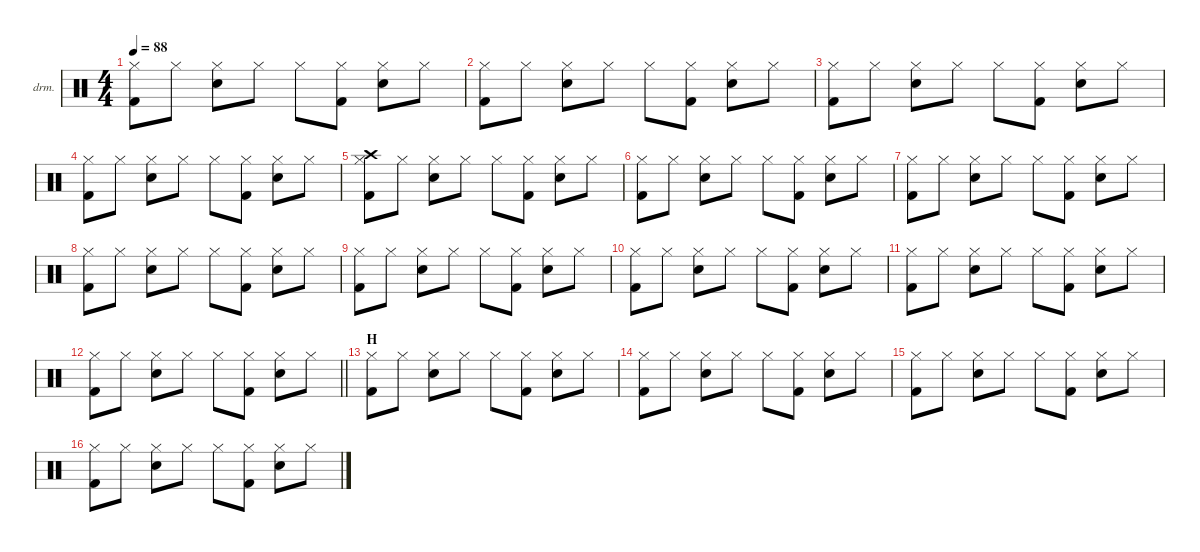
\defaultSystemsLayout 4
\hideDynamics
\bracketExtendMode nobrackets
\firstSystemTrackNameOrientation horizontal
\otherSystemsTrackNameOrientation horizontal
\track ("Percussie" "drm.") {instrument percussion}
\staff {score}
\articulation defaults
\ts (4 4)
\tempo 88
\clef neutral
\ks c
("Hi-Hat (closed)" "Kick (hit) 2").8{dy f} "Hi-Hat (closed)".8 ("Hi-Hat (closed)" "Snare (hit) 2").8 "Hi-Hat (closed)".8 "Hi-Hat (closed)".8 ("Hi-Hat (closed)" "Kick (hit) 2").8 ("Hi-Hat (closed)" "Snare (hit) 2").8 "Hi-Hat (closed)".8 |
("Hi-Hat (closed)" "Kick (hit) 2").8 "Hi-Hat (closed)".8 ("Hi-Hat (closed)" "Snare (hit) 2").8 "Hi-Hat (closed)".8 "Hi-Hat (closed)".8 ("Hi-Hat (closed)" "Kick (hit) 2").8 ("Hi-Hat (closed)" "Snare (hit) 2").8 "Hi-Hat (closed)".8 |
("Hi-Hat (closed)" "Kick (hit) 2").8 "Hi-Hat (closed)".8 ("Hi-Hat (closed)" "Snare (hit) 2").8 "Hi-Hat (closed)".8 "Hi-Hat (closed)".8 ("Hi-Hat (closed)" "Kick (hit) 2").8 ("Hi-Hat (closed)" "Snare (hit) 2").8 "Hi-Hat (closed)".8 |
("Hi-Hat (closed)" "Kick (hit) 2").8 "Hi-Hat (closed)".8 ("Hi-Hat (closed)" "Snare (hit) 2").8 "Hi-Hat (closed)".8 "Hi-Hat (closed)".8 ("Hi-Hat (closed)" "Kick (hit) 2").8 ("Hi-Hat (closed)" "Snare (hit) 2").8 "Hi-Hat (closed)".8 |
("Crash high (hit)" "Hi-Hat (closed)" "Kick (hit) 2").8 "Hi-Hat (closed)".8 ("Hi-Hat (closed)" "Snare (hit) 2").8 "Hi-Hat (closed)".8 "Hi-Hat (closed)".8 ("Hi-Hat (closed)" "Kick (hit) 2").8 ("Hi-Hat (closed)" "Snare (hit) 2").8 "Hi-Hat (closed)".8 |
("Hi-Hat (closed)" "Kick (hit) 2").8 "Hi-Hat (closed)".8 ("Hi-Hat (closed)" "Snare (hit) 2").8 "Hi-Hat (closed)".8 "Hi-Hat (closed)".8 ("Hi-Hat (closed)" "Kick (hit) 2").8 ("Hi-Hat (closed)" "Snare (hit) 2").8 "Hi-Hat (closed)".8 |
("Hi-Hat (closed)" "Kick (hit) 2").8 "Hi-Hat (closed)".8 ("Hi-Hat (closed)" "Snare (hit) 2").8 "Hi-Hat (closed)".8 "Hi-Hat (closed)".8 ("Hi-Hat (closed)" "Kick (hit) 2").8 ("Hi-Hat (closed)" "Snare (hit) 2").8 "Hi-Hat (closed)".8 |
("Hi-Hat (closed)" "Kick (hit) 2").8 "Hi-Hat (closed)".8 ("Hi-Hat (closed)" "Snare (hit) 2").8 "Hi-Hat (closed)".8 "Hi-Hat (closed)".8 ("Hi-Hat (closed)" "Kick (hit) 2").8 ("Hi-Hat (closed)" "Snare (hit) 2").8 "Hi-Hat (closed)".8 |
("Hi-Hat (closed)" "Kick (hit) 2").8 "Hi-Hat (closed)".8 ("Hi-Hat (closed)" "Snare (hit) 2").8 "Hi-Hat (closed)".8 "Hi-Hat (closed)".8 ("Hi-Hat (closed)" "Kick (hit) 2").8 ("Hi-Hat (closed)" "Snare (hit) 2").8 "Hi-Hat (closed)".8 |
("Hi-Hat (closed)" "Kick (hit) 2").8 "Hi-Hat (closed)".8 ("Hi-Hat (closed)" "Snare (hit) 2").8 "Hi-Hat (closed)".8 "Hi-Hat (closed)".8 ("Hi-Hat (closed)" "Kick (hit) 2").8 ("Hi-Hat (closed)" "Snare (hit) 2").8 "Hi-Hat (closed)".8 |
("Hi-Hat (closed)" "Kick (hit) 2").8 "Hi-Hat (closed)".8 ("Hi-Hat (closed)" "Snare (hit) 2").8 "Hi-Hat (closed)".8 "Hi-Hat (closed)".8 ("Hi-Hat (closed)" "Kick (hit) 2").8 ("Hi-Hat (closed)" "Snare (hit) 2").8 "Hi-Hat (closed)".8 |
\barLineRight lightlight
("Hi-Hat (closed)" "Kick (hit) 2").8 "Hi-Hat (closed)".8 ("Hi-Hat (closed)" "Snare (hit) 2").8 "Hi-Hat (closed)".8 "Hi-Hat (closed)".8 ("Hi-Hat (closed)" "Kick (hit) 2").8 ("Hi-Hat (closed)" "Snare (hit) 2").8 "Hi-Hat (closed)".8 |
\section ("" "H")
("Hi-Hat (closed)" "Kick (hit) 2").8 "Hi-Hat (closed)".8 ("Hi-Hat (closed)" "Snare (hit) 2").8 "Hi-Hat (closed)".8 "Hi-Hat (closed)".8 ("Hi-Hat (closed)" "Kick (hit) 2").8 ("Hi-Hat (closed)" "Snare (hit) 2").8 "Hi-Hat (closed)".8 |
("Hi-Hat (closed)" "Kick (hit) 2").8 "Hi-Hat (closed)".8 ("Hi-Hat (closed)" "Snare (hit) 2").8 "Hi-Hat (closed)".8 "Hi-Hat (closed)".8 ("Hi-Hat (closed)" "Kick (hit) 2").8 ("Hi-Hat (closed)" "Snare (hit) 2").8 "Hi-Hat (closed)".8 |
("Hi-Hat (closed)" "Kick (hit) 2").8 "Hi-Hat (closed)".8 ("Hi-Hat (closed)" "Snare (hit) 2").8 "Hi-Hat (closed)".8 "Hi-Hat (closed)".8 ("Hi-Hat (closed)" "Kick (hit) 2").8 ("Hi-Hat (closed)" "Snare (hit) 2").8 "Hi-Hat (closed)".8 |
("Hi-Hat (closed)" "Kick (hit) 2").8 "Hi-Hat (closed)".8 ("Hi-Hat (closed)" "Snare (hit) 2").8 "Hi-Hat (closed)".8 "Hi-Hat (closed)".8 ("Hi-Hat (closed)" "Kick (hit) 2").8 ("Hi-Hat (closed)" "Snare (hit) 2").8 "Hi-Hat (closed)".8
